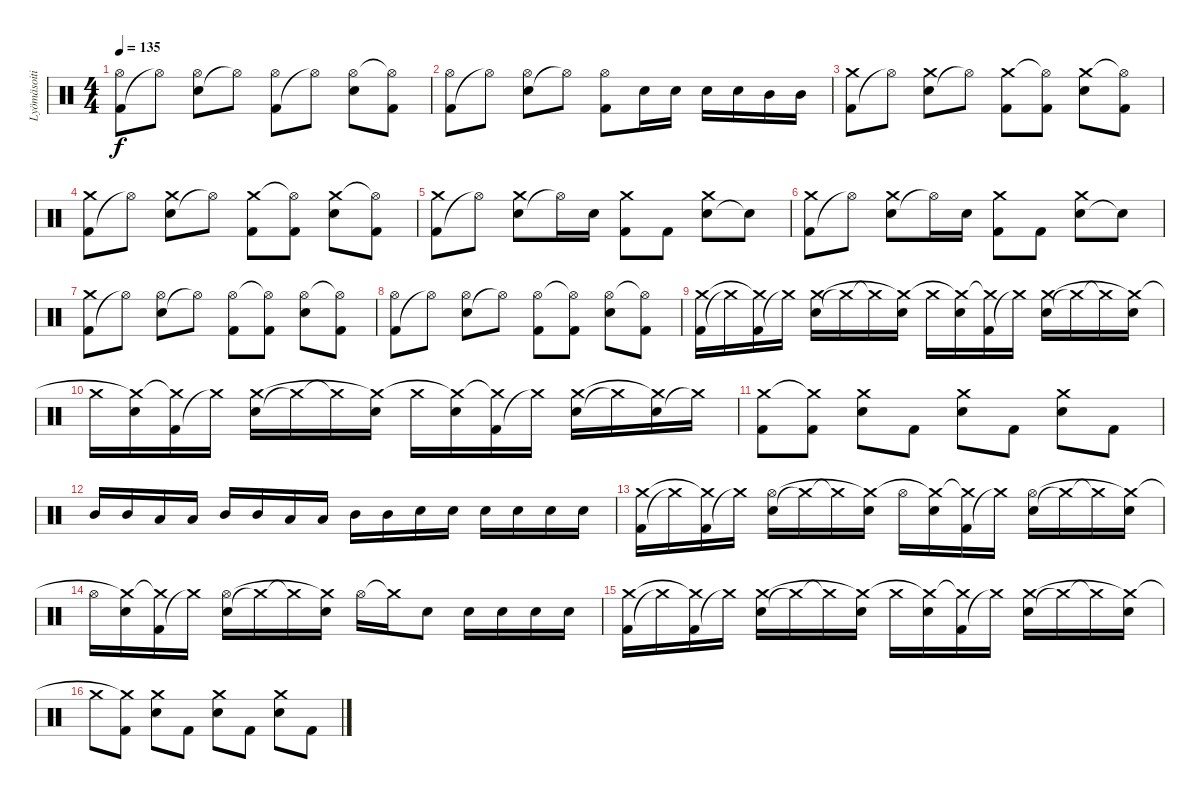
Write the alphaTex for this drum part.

\track ("Lyömäsoitin" "Lyömäsoiti") {instrument percussion}
\staff {score}
\articulation defaults
\ts (4 4)
\tempo 135
\clef neutral
\ks c
("Kick (hit) 2" "Hi-Hat (open)").8{dy f} "Hi-Hat (open)"{t}.8 ("Electric Snare (hit)" "Hi-Hat (open)").8 "Hi-Hat (open)"{t}.8 ("Kick (hit) 2" "Hi-Hat (open)").8 "Hi-Hat (open)"{t}.8 ("Electric Snare (hit)" "Hi-Hat (open)").8 ("Kick (hit) 2" "Hi-Hat (open)"{t}).8 |
("Kick (hit) 2" "Hi-Hat (open)").8 "Hi-Hat (open)"{t}.8 ("Electric Snare (hit)" "Hi-Hat (open)").8 "Hi-Hat (open)"{t}.8 ("Kick (hit) 2" "Hi-Hat (open)").8 "Electric Snare (hit)".16 "Electric Snare (hit)".16 "Electric Snare (hit)".16 "Electric Snare (hit)".16 "Mid Tom (hit)".16 "Mid Tom (hit)".16 |
("Kick (hit) 2" "Crash medium (hit)").8 "Hi-Hat (open)"{t}.8 ("Electric Snare (hit)" "Crash medium (hit)").8 "Hi-Hat (open)"{t}.8 ("Kick (hit) 2" "Crash medium (hit)").8 ("Kick (hit) 2" "Hi-Hat (open)"{t}).8 ("Electric Snare (hit)" "Crash medium (hit)").8 ("Kick (hit) 2" "Hi-Hat (open)"{t}).8 |
("Kick (hit) 2" "Crash medium (hit)").8 "Hi-Hat (open)"{t}.8 ("Electric Snare (hit)" "Crash medium (hit)").8 "Hi-Hat (open)"{t}.8 ("Kick (hit) 2" "Crash medium (hit)").8 ("Kick (hit) 2" "Hi-Hat (open)"{t}).8 ("Electric Snare (hit)" "Crash medium (hit)").8 ("Kick (hit) 2" "Hi-Hat (open)"{t}).8 |
("Kick (hit) 2" "Crash medium (hit)").8 "Hi-Hat (open)"{t}.8 ("Electric Snare (hit)" "Crash medium (hit)").8 "Hi-Hat (open)"{t}.16 "Electric Snare (hit)".16 ("Kick (hit) 2" "Crash medium (hit)").8 "Kick (hit) 2".8 ("Electric Snare (hit)" "Crash medium (hit)").8 "Snare (hit)"{t}.8 |
("Kick (hit) 2" "Crash medium (hit)").8 "Hi-Hat (open)"{t}.8 ("Electric Snare (hit)" "Crash medium (hit)").8 "Hi-Hat (open)"{t}.16 "Electric Snare (hit)".16 ("Kick (hit) 2" "Crash medium (hit)").8 "Kick (hit) 2".8 ("Electric Snare (hit)" "Crash medium (hit)").8 "Snare (hit)"{t}.8 |
("Kick (hit) 2" "Crash medium (hit)").8 "Hi-Hat (open)"{t}.8 ("Electric Snare (hit)" "Hi-Hat (open)").8 "Hi-Hat (open)"{t}.8 ("Kick (hit) 2" "Hi-Hat (open)").8 ("Kick (hit) 2" "Hi-Hat (open)"{t}).8 ("Electric Snare (hit)" "Hi-Hat (open)").8 ("Kick (hit) 2" "Hi-Hat (open)"{t}).8 |
("Kick (hit) 2" "Hi-Hat (open)").8 "Hi-Hat (open)"{t}.8 ("Electric Snare (hit)" "Hi-Hat (open)").8 "Hi-Hat (open)"{t}.8 ("Kick (hit) 2" "Hi-Hat (open)").8 ("Kick (hit) 2" "Hi-Hat (open)"{t}).8 ("Electric Snare (hit)" "Hi-Hat (open)").8 ("Kick (hit) 2" "Hi-Hat (open)"{t}).8 |
("Kick (hit) 2" "Crash medium (hit)").16 "Crash medium (hit)"{t}.16 ("Kick (hit) 2" "Crash medium (hit)"{t}).16 "Crash medium (hit)"{t}.16 ("Electric Snare (hit)" "Crash medium (hit)").16 "Crash medium (hit)"{t}.16 "Crash medium (hit)"{t}.16 ("Electric Snare (hit)" "Crash medium (hit)"{t}).16 "Crash medium (hit)".16 ("Electric Snare (hit)" "Crash medium (hit)"{t}).16 ("Kick (hit) 2" "Crash medium (hit)"{t}).16 "Crash medium (hit)"{t}.16 ("Electric Snare (hit)" "Crash medium (hit)").16 "Crash medium (hit)"{t}.16 "Crash medium (hit)"{t}.16 ("Electric Snare (hit)" "Crash medium (hit)"{t}).16 |
"Crash medium (hit)".16 ("Electric Snare (hit)" "Crash medium (hit)"{t}).16 ("Kick (hit) 2" "Crash medium (hit)"{t}).16 "Crash medium (hit)"{t}.16 ("Electric Snare (hit)" "Crash medium (hit)").16 "Crash medium (hit)"{t}.16 "Crash medium (hit)"{t}.16 ("Electric Snare (hit)" "Crash medium (hit)"{t}).16 "Crash medium (hit)".16 ("Electric Snare (hit)" "Crash medium (hit)"{t}).16 ("Kick (hit) 2" "Crash medium (hit)"{t}).16 "Crash medium (hit)"{t}.16 ("Electric Snare (hit)" "Crash medium (hit)").16 "Crash medium (hit)"{t}.16 ("Electric Snare (hit)" "Crash medium (hit)"{t}).16 "Crash medium (hit)"{t}.16 |
("Kick (hit) 2" "Crash medium (hit)").8 ("Kick (hit) 2" "Crash medium (hit)"{t}).8 ("Electric Snare (hit)" "Crash medium (hit)").8 "Kick (hit) 2".8 ("Electric Snare (hit)" "Crash medium (hit)").8 "Kick (hit) 2".8 ("Electric Snare (hit)" "Crash medium (hit)").8 "Kick (hit) 2".8 |
"Mid Tom (hit)".16 "Mid Tom (hit)".16 "Low Tom (hit)".16 "Low Tom (hit)".16 "Mid Tom (hit)".16 "Mid Tom (hit)".16 "Low Tom (hit)".16 "Low Tom (hit)".16 "Mid Tom (hit)".16 "Mid Tom (hit)".16 "Electric Snare (hit)".16 "Electric Snare (hit)".16 "Electric Snare (hit)".16 "Electric Snare (hit)".16 "Electric Snare (hit)".16 "Electric Snare (hit)".16 |
("Kick (hit) 2" "Crash medium (hit)").16 "Crash medium (hit)"{t}.16 ("Kick (hit) 2" "Crash medium (hit)"{t}).16 "Crash medium (hit)"{t}.16 ("Electric Snare (hit)" "Hi-Hat (open)").16 "Crash medium (hit)"{t}.16 "Crash medium (hit)"{t}.16 ("Electric Snare (hit)" "Crash medium (hit)"{t}).16 "Hi-Hat (open)".16 ("Electric Snare (hit)" "Crash medium (hit)"{t}).16 ("Kick (hit) 2" "Crash medium (hit)"{t}).16 "Crash medium (hit)"{t}.16 ("Electric Snare (hit)" "Hi-Hat (open)").16 "Crash medium (hit)"{t}.16 "Crash medium (hit)"{t}.16 ("Electric Snare (hit)" "Crash medium (hit)"{t}).16 |
"Hi-Hat (open)".16 ("Electric Snare (hit)" "Crash medium (hit)"{t}).16 ("Kick (hit) 2" "Crash medium (hit)"{t}).16 "Crash medium (hit)"{t}.16 ("Electric Snare (hit)" "Hi-Hat (open)").16 "Crash medium (hit)"{t}.16 "Crash medium (hit)"{t}.16 ("Electric Snare (hit)" "Crash medium (hit)"{t}).16 "Hi-Hat (open)".16 "Crash medium (hit)"{t}.16 "Electric Snare (hit)".8 "Electric Snare (hit)".16 "Electric Snare (hit)".16 "Electric Snare (hit)".16 "Electric Snare (hit)".16 |
("Kick (hit) 2" "Crash medium (hit)").16 "Crash medium (hit)"{t}.16 ("Kick (hit) 2" "Crash medium (hit)"{t}).16 "Crash medium (hit)"{t}.16 ("Electric Snare (hit)" "Crash medium (hit)").16 "Crash medium (hit)"{t}.16 "Crash medium (hit)"{t}.16 ("Electric Snare (hit)" "Crash medium (hit)"{t}).16 "Crash medium (hit)".16 ("Electric Snare (hit)" "Crash medium (hit)"{t}).16 ("Kick (hit) 2" "Crash medium (hit)"{t}).16 "Crash medium (hit)"{t}.16 ("Electric Snare (hit)" "Crash medium (hit)").16 "Crash medium (hit)"{t}.16 "Crash medium (hit)"{t}.16 ("Electric Snare (hit)" "Crash medium (hit)"{t}).16 |
"Crash medium (hit)".8 ("Kick (hit) 2" "Crash medium (hit)"{t}).8 ("Electric Snare (hit)" "Crash medium (hit)").8 "Kick (hit) 2".8 ("Electric Snare (hit)" "Crash medium (hit)").8 "Kick (hit) 2".8 ("Electric Snare (hit)" "Crash medium (hit)").8 "Kick (hit) 2".8
